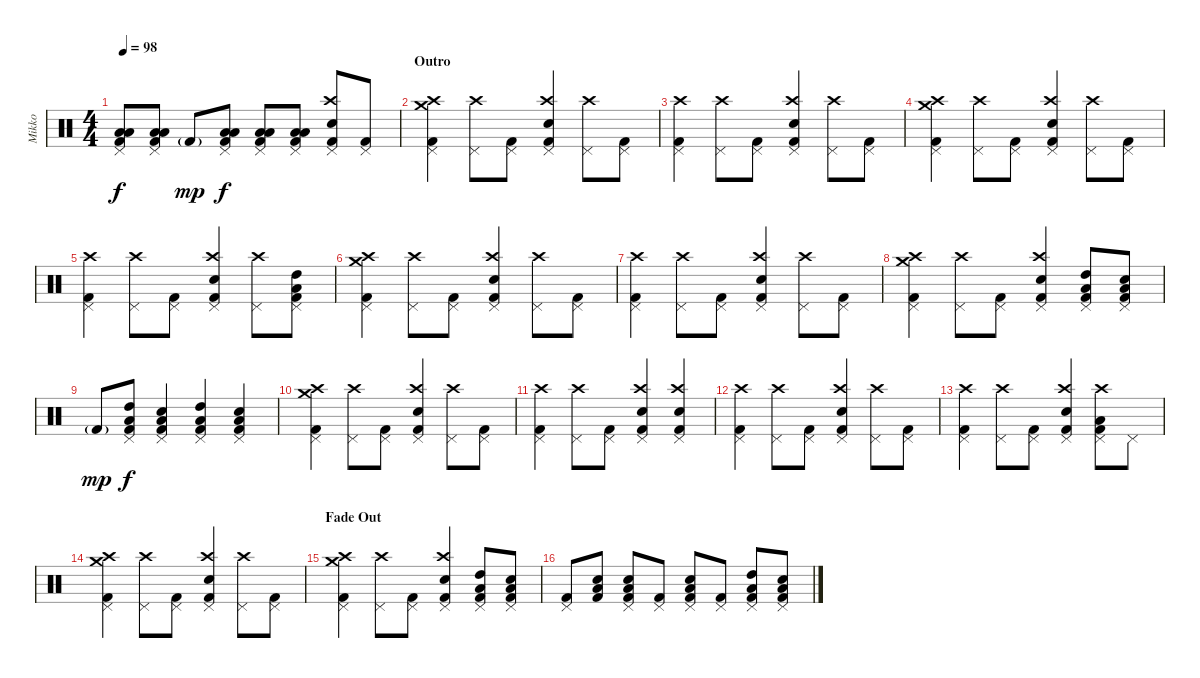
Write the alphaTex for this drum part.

\track ("Mikko" "Mikko") {instrument percussion}
\staff {score}
\articulation defaults
\ts (4 4)
\tempo 98
\clef neutral
\ks c
("Pedal Hi-Hat (hit)" "Low Tom (hit)" "Low Floor Tom (hit)" "Kick (hit) 2").8{dy f} ("Pedal Hi-Hat (hit)" "Low Tom (hit)" "Low Floor Tom (hit)" "Kick (hit) 2").8 "Kick (hit) 2"{g}.8{dy mp} ("Pedal Hi-Hat (hit)" "Low Tom (hit)" "Low Floor Tom (hit)" "Kick (hit) 2").8{dy f} ("Pedal Hi-Hat (hit)" "Low Tom (hit)" "Low Floor Tom (hit)" "Kick (hit) 2").8 ("Pedal Hi-Hat (hit)" "Low Tom (hit)" "Low Floor Tom (hit)" "Kick (hit) 2").8 ("Crash high (hit)" "Pedal Hi-Hat (hit)" "Electric Snare (hit)" "Kick (hit) 2").8 ("Pedal Hi-Hat (hit)" "Kick (hit) 2").8 |
\section ("" "Outro")
("Crash high (hit)" "Crash medium (hit)" "Pedal Hi-Hat (hit)" "Kick (hit) 2").4 ("Crash high (hit)" "Pedal Hi-Hat (hit)").8 ("Pedal Hi-Hat (hit)" "Kick (hit) 2").8 ("Crash high (hit)" "Electric Snare (hit)" "Pedal Hi-Hat (hit)" "Kick (hit) 2").4 ("Crash high (hit)" "Pedal Hi-Hat (hit)").8 ("Pedal Hi-Hat (hit)" "Kick (hit) 2").8 |
("Crash high (hit)" "Pedal Hi-Hat (hit)" "Kick (hit) 2").4 ("Crash high (hit)" "Pedal Hi-Hat (hit)").8 ("Pedal Hi-Hat (hit)" "Kick (hit) 2").8 ("Crash high (hit)" "Electric Snare (hit)" "Pedal Hi-Hat (hit)" "Kick (hit) 2").4 ("Crash high (hit)" "Pedal Hi-Hat (hit)").8 ("Kick (hit) 2" "Pedal Hi-Hat (hit)").8 |
("Crash high (hit)" "Crash medium (hit)" "Pedal Hi-Hat (hit)" "Kick (hit) 2").4 ("Crash high (hit)" "Pedal Hi-Hat (hit)").8 ("Pedal Hi-Hat (hit)" "Kick (hit) 2").8 ("Crash high (hit)" "Electric Snare (hit)" "Pedal Hi-Hat (hit)" "Kick (hit) 2").4 ("Crash high (hit)" "Pedal Hi-Hat (hit)").8 ("Pedal Hi-Hat (hit)" "Kick (hit) 2").8 |
("Crash high (hit)" "Pedal Hi-Hat (hit)" "Kick (hit) 2").4 ("Crash high (hit)" "Pedal Hi-Hat (hit)").8 ("Pedal Hi-Hat (hit)" "Kick (hit) 2").8 ("Crash high (hit)" "Electric Snare (hit)" "Pedal Hi-Hat (hit)" "Kick (hit) 2").4 ("Crash high (hit)" "Pedal Hi-Hat (hit)").8 ("High Tom (hit)" "Low Floor Tom (hit)" "Kick (hit) 2" "Pedal Hi-Hat (hit)").8 |
("Crash high (hit)" "Crash medium (hit)" "Pedal Hi-Hat (hit)" "Kick (hit) 2").4 ("Crash high (hit)" "Pedal Hi-Hat (hit)").8 ("Pedal Hi-Hat (hit)" "Kick (hit) 2").8 ("Crash high (hit)" "Electric Snare (hit)" "Pedal Hi-Hat (hit)" "Kick (hit) 2").4 ("Crash high (hit)" "Pedal Hi-Hat (hit)").8 ("Pedal Hi-Hat (hit)" "Kick (hit) 2").8 |
("Crash high (hit)" "Pedal Hi-Hat (hit)" "Kick (hit) 2").4 ("Crash high (hit)" "Pedal Hi-Hat (hit)").8 ("Pedal Hi-Hat (hit)" "Kick (hit) 2").8 ("Crash high (hit)" "Electric Snare (hit)" "Pedal Hi-Hat (hit)" "Kick (hit) 2").4 ("Crash high (hit)" "Pedal Hi-Hat (hit)").8 ("Kick (hit) 2" "Pedal Hi-Hat (hit)").8 |
("Crash high (hit)" "Crash medium (hit)" "Pedal Hi-Hat (hit)" "Kick (hit) 2").4 ("Crash high (hit)" "Pedal Hi-Hat (hit)").8 ("Pedal Hi-Hat (hit)" "Kick (hit) 2").8 ("Crash high (hit)" "Electric Snare (hit)" "Pedal Hi-Hat (hit)" "Kick (hit) 2").4 ("High Tom (hit)" "Low Floor Tom (hit)" "Pedal Hi-Hat (hit)" "Kick (hit) 2").8 ("Low Floor Tom (hit)" "Electric Snare (hit)" "Pedal Hi-Hat (hit)" "Kick (hit) 2").8 |
"Kick (hit) 2"{g}.8{dy mp} ("High Tom (hit)" "Low Floor Tom (hit)" "Pedal Hi-Hat (hit)" "Kick (hit) 2").8{dy f} ("Pedal Hi-Hat (hit)" "Low Floor Tom (hit)" "Electric Snare (hit)" "Kick (hit) 2").4 ("High Tom (hit)" "Low Tom (hit)" "Pedal Hi-Hat (hit)" "Kick (hit) 2").4 ("Pedal Hi-Hat (hit)" "Low Floor Tom (hit)" "Electric Snare (hit)" "Kick (hit) 2").4 |
("Crash high (hit)" "Crash medium (hit)" "Pedal Hi-Hat (hit)" "Kick (hit) 2").4 ("Crash high (hit)" "Pedal Hi-Hat (hit)").8 ("Pedal Hi-Hat (hit)" "Kick (hit) 2").8 ("Crash high (hit)" "Electric Snare (hit)" "Pedal Hi-Hat (hit)" "Kick (hit) 2").4 ("Crash high (hit)" "Pedal Hi-Hat (hit)").8 ("Pedal Hi-Hat (hit)" "Kick (hit) 2").8 |
("Crash high (hit)" "Pedal Hi-Hat (hit)" "Kick (hit) 2").4 ("Crash high (hit)" "Pedal Hi-Hat (hit)").8 ("Pedal Hi-Hat (hit)" "Kick (hit) 2").8 ("Crash high (hit)" "Electric Snare (hit)" "Pedal Hi-Hat (hit)" "Kick (hit) 2").4 ("Crash high (hit)" "Electric Snare (hit)" "Kick (hit) 2" "Pedal Hi-Hat (hit)").4 |
("Crash high (hit)" "Pedal Hi-Hat (hit)" "Kick (hit) 2").4 ("Crash high (hit)" "Pedal Hi-Hat (hit)").8 ("Pedal Hi-Hat (hit)" "Kick (hit) 2").8 ("Crash high (hit)" "Electric Snare (hit)" "Pedal Hi-Hat (hit)" "Kick (hit) 2").4 ("Crash high (hit)" "Pedal Hi-Hat (hit)").8 ("Pedal Hi-Hat (hit)" "Kick (hit) 2").8 |
("Crash high (hit)" "Pedal Hi-Hat (hit)" "Kick (hit) 2").4 ("Crash high (hit)" "Pedal Hi-Hat (hit)").8 ("Pedal Hi-Hat (hit)" "Kick (hit) 2").8 ("Crash high (hit)" "Electric Snare (hit)" "Pedal Hi-Hat (hit)" "Kick (hit) 2").4 ("Crash high (hit)" "Low Tom (hit)" "Pedal Hi-Hat (hit)" "Kick (hit) 2").8 "Pedal Hi-Hat (hit)".8 |
("Crash high (hit)" "Crash medium (hit)" "Pedal Hi-Hat (hit)" "Kick (hit) 2").4 ("Crash high (hit)" "Pedal Hi-Hat (hit)").8 ("Pedal Hi-Hat (hit)" "Kick (hit) 2").8 ("Crash high (hit)" "Electric Snare (hit)" "Pedal Hi-Hat (hit)" "Kick (hit) 2").4 ("Crash high (hit)" "Pedal Hi-Hat (hit)").8 ("Pedal Hi-Hat (hit)" "Kick (hit) 2").8 |
\section ("" "Fade Out")
("Crash high (hit)" "Crash medium (hit)" "Pedal Hi-Hat (hit)" "Kick (hit) 2").4 ("Crash high (hit)" "Pedal Hi-Hat (hit)").8 ("Pedal Hi-Hat (hit)" "Kick (hit) 2").8 ("Crash high (hit)" "Electric Snare (hit)" "Pedal Hi-Hat (hit)" "Kick (hit) 2").4 ("High Tom (hit)" "Low Floor Tom (hit)" "Pedal Hi-Hat (hit)" "Kick (hit) 2").8 ("Low Floor Tom (hit)" "Electric Snare (hit)" "Pedal Hi-Hat (hit)" "Kick (hit) 2").8 |
("Pedal Hi-Hat (hit)" "Kick (hit) 2").8 ("Low Floor Tom (hit)" "Electric Snare (hit)" "Kick (hit) 2").8 ("Pedal Hi-Hat (hit)" "Low Floor Tom (hit)" "Electric Snare (hit)" "Kick (hit) 2").8 ("Pedal Hi-Hat (hit)" "Kick (hit) 2").8 ("Low Floor Tom (hit)" "Electric Snare (hit)" "Pedal Hi-Hat (hit)" "Kick (hit) 2").8 ("Pedal Hi-Hat (hit)" "Kick (hit) 2").8 ("High Tom (hit)" "Low Floor Tom (hit)" "Pedal Hi-Hat (hit)" "Kick (hit) 2").8 ("Pedal Hi-Hat (hit)" "Low Floor Tom (hit)" "Electric Snare (hit)" "Kick (hit) 2").8
